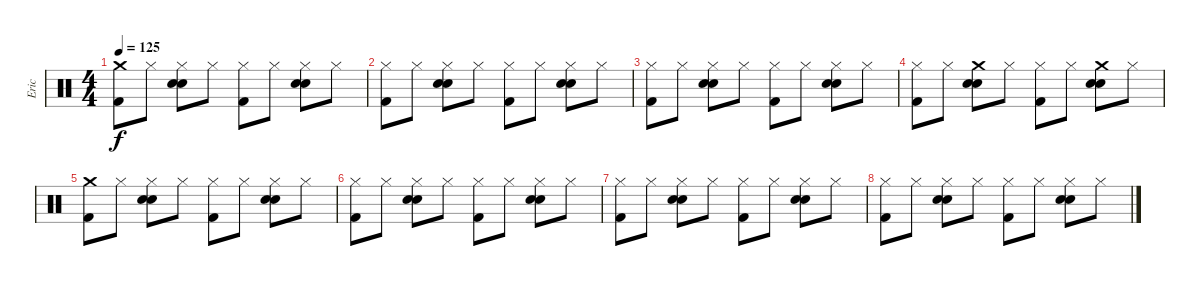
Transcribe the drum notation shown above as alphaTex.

\track ("Eric" "Eric") {instrument percussion}
\staff {score}
\articulation defaults
\ts (4 4)
\tempo 125
\clef neutral
\ks c
("Crash medium (hit)" "Kick (hit) 2").8{dy f} "Hi-Hat (closed)".8 ("Hi-Hat (closed)" "Electric Snare (hit)" "Snare (hit) 2").8 "Hi-Hat (closed)".8 ("Hi-Hat (closed)" "Kick (hit) 2").8 "Hi-Hat (closed)".8 ("Hi-Hat (closed)" "Snare (hit) 2" "Electric Snare (hit)").8 "Hi-Hat (closed)".8 |
("Hi-Hat (closed)" "Kick (hit) 2").8 "Hi-Hat (closed)".8 ("Hi-Hat (closed)" "Electric Snare (hit)" "Snare (hit) 2").8 "Hi-Hat (closed)".8 ("Hi-Hat (closed)" "Kick (hit) 2").8 "Hi-Hat (closed)".8 ("Hi-Hat (closed)" "Snare (hit) 2" "Electric Snare (hit)").8 "Hi-Hat (closed)".8 |
("Hi-Hat (closed)" "Kick (hit) 2").8 "Hi-Hat (closed)".8 ("Hi-Hat (closed)" "Electric Snare (hit)" "Snare (hit) 2").8 "Hi-Hat (closed)".8 ("Hi-Hat (closed)" "Kick (hit) 2").8 "Hi-Hat (closed)".8 ("Hi-Hat (closed)" "Snare (hit) 2" "Electric Snare (hit)").8 "Hi-Hat (closed)".8 |
("Hi-Hat (closed)" "Kick (hit) 2").8 "Hi-Hat (closed)".8 ("Crash medium (hit)" "Electric Snare (hit)" "Snare (hit) 2").8 "Hi-Hat (closed)".8 ("Hi-Hat (closed)" "Kick (hit) 2").8 "Hi-Hat (closed)".8 ("Crash medium (hit)" "Snare (hit) 2" "Electric Snare (hit)").8 "Hi-Hat (closed)".8 |
("Crash medium (hit)" "Kick (hit) 2").8 "Hi-Hat (closed)".8 ("Hi-Hat (closed)" "Electric Snare (hit)" "Snare (hit) 2").8 "Hi-Hat (closed)".8 ("Hi-Hat (closed)" "Kick (hit) 2").8 "Hi-Hat (closed)".8 ("Hi-Hat (closed)" "Snare (hit) 2" "Electric Snare (hit)").8 "Hi-Hat (closed)".8 |
("Hi-Hat (closed)" "Kick (hit) 2").8 "Hi-Hat (closed)".8 ("Hi-Hat (closed)" "Electric Snare (hit)" "Snare (hit) 2").8 "Hi-Hat (closed)".8 ("Hi-Hat (closed)" "Kick (hit) 2").8 "Hi-Hat (closed)".8 ("Hi-Hat (closed)" "Snare (hit) 2" "Electric Snare (hit)").8 "Hi-Hat (closed)".8 |
("Hi-Hat (closed)" "Kick (hit) 2").8 "Hi-Hat (closed)".8 ("Hi-Hat (closed)" "Electric Snare (hit)" "Snare (hit) 2").8 "Hi-Hat (closed)".8 ("Hi-Hat (closed)" "Kick (hit) 2").8 "Hi-Hat (closed)".8 ("Hi-Hat (closed)" "Snare (hit) 2" "Electric Snare (hit)").8 "Hi-Hat (closed)".8 |
("Hi-Hat (closed)" "Kick (hit) 2").8 "Hi-Hat (closed)".8 ("Hi-Hat (closed)" "Electric Snare (hit)" "Snare (hit) 2").8 "Hi-Hat (closed)".8 ("Hi-Hat (closed)" "Kick (hit) 2").8 "Hi-Hat (closed)".8 ("Hi-Hat (closed)" "Snare (hit) 2" "Electric Snare (hit)").8 "Hi-Hat (closed)".8
